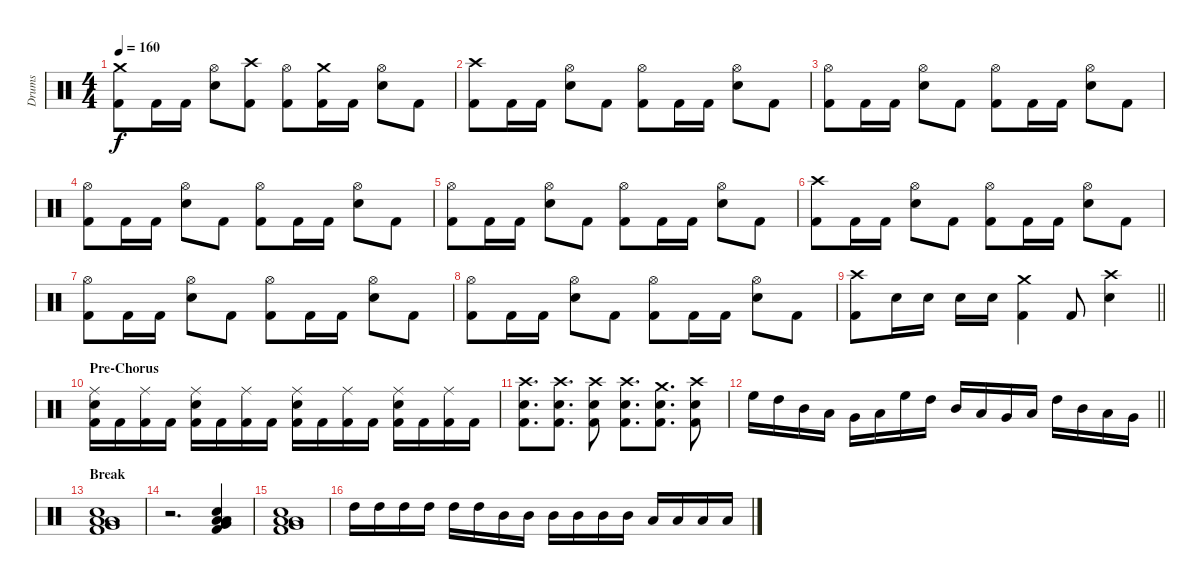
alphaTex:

\track ("Drums" "Drums") {instrument percussion}
\staff {score}
\articulation defaults
\ts (4 4)
\tempo 160
\clef neutral
\ks c
("Crash medium (hit)" "Kick (hit) 2").8{dy f} "Kick (hit) 2".16 "Kick (hit) 2".16 ("Hi-Hat (open)" "Snare (hit) 2").8 ("Crash high (hit)" "Kick (hit) 2").8 ("Hi-Hat (open)" "Kick (hit) 2").8 ("Crash medium (hit)" "Kick (hit) 2").16 "Kick (hit) 2".16 ("Hi-Hat (open)" "Snare (hit) 2").8 "Kick (hit) 2".8 |
("Crash high (hit)" "Kick (hit) 2").8 "Kick (hit) 2".16 "Kick (hit) 2".16 ("Hi-Hat (open)" "Snare (hit) 2").8 "Kick (hit) 2".8 ("Hi-Hat (open)" "Kick (hit) 2").8 "Kick (hit) 2".16 "Kick (hit) 2".16 ("Hi-Hat (open)" "Snare (hit) 2").8 "Kick (hit) 2".8 |
("Hi-Hat (open)" "Kick (hit) 2").8 "Kick (hit) 2".16 "Kick (hit) 2".16 ("Hi-Hat (open)" "Snare (hit) 2").8 "Kick (hit) 2".8 ("Hi-Hat (open)" "Kick (hit) 2").8 "Kick (hit) 2".16 "Kick (hit) 2".16 ("Hi-Hat (open)" "Snare (hit) 2").8 "Kick (hit) 2".8 |
("Hi-Hat (open)" "Kick (hit) 2").8 "Kick (hit) 2".16 "Kick (hit) 2".16 ("Hi-Hat (open)" "Snare (hit) 2").8 "Kick (hit) 2".8 ("Hi-Hat (open)" "Kick (hit) 2").8 "Kick (hit) 2".16 "Kick (hit) 2".16 ("Hi-Hat (open)" "Snare (hit) 2").8 "Kick (hit) 2".8 |
("Hi-Hat (open)" "Kick (hit) 2").8 "Kick (hit) 2".16 "Kick (hit) 2".16 ("Hi-Hat (open)" "Snare (hit) 2").8 "Kick (hit) 2".8 ("Hi-Hat (open)" "Kick (hit) 2").8 "Kick (hit) 2".16 "Kick (hit) 2".16 ("Hi-Hat (open)" "Snare (hit) 2").8 "Kick (hit) 2".8 |
("Crash high (hit)" "Kick (hit) 2").8 "Kick (hit) 2".16 "Kick (hit) 2".16 ("Hi-Hat (open)" "Snare (hit) 2").8 "Kick (hit) 2".8 ("Hi-Hat (open)" "Kick (hit) 2").8 "Kick (hit) 2".16 "Kick (hit) 2".16 ("Hi-Hat (open)" "Snare (hit) 2").8 "Kick (hit) 2".8 |
("Hi-Hat (open)" "Kick (hit) 2").8 "Kick (hit) 2".16 "Kick (hit) 2".16 ("Hi-Hat (open)" "Snare (hit) 2").8 "Kick (hit) 2".8 ("Hi-Hat (open)" "Kick (hit) 2").8 "Kick (hit) 2".16 "Kick (hit) 2".16 ("Hi-Hat (open)" "Snare (hit) 2").8 "Kick (hit) 2".8 |
("Hi-Hat (open)" "Kick (hit) 2").8 "Kick (hit) 2".16 "Kick (hit) 2".16 ("Hi-Hat (open)" "Snare (hit) 2").8 "Kick (hit) 2".8 ("Hi-Hat (open)" "Kick (hit) 2").8 "Kick (hit) 2".16 "Kick (hit) 2".16 ("Hi-Hat (open)" "Snare (hit) 2").8 "Kick (hit) 2".8 |
\barLineRight lightlight
("Crash high (hit)" "Kick (hit) 2").8 "Snare (hit) 2".16 "Snare (hit) 2".16 "Electric Snare (hit)".16 "Electric Snare (hit)".16 ("Crash medium (hit)" "Kick (hit) 2").4 "Kick (hit) 2".8 ("Crash high (hit)" "Snare (hit) 2").4 |
\section ("" "Pre-Chorus")
("Ride (middle)" "Snare (hit) 2" "Kick (hit) 2").16 "Kick (hit) 2".16 ("Ride (middle)" "Kick (hit) 2").16 "Kick (hit) 2".16 ("Ride (middle)" "Snare (hit) 2" "Kick (hit) 2").16 "Kick (hit) 2".16 ("Ride (middle)" "Kick (hit) 2").16 "Kick (hit) 2".16 ("Ride (middle)" "Snare (hit) 2" "Kick (hit) 2").16 "Kick (hit) 2".16 ("Ride (middle)" "Kick (hit) 2").16 "Kick (hit) 2".16 ("Ride (middle)" "Snare (hit) 2" "Kick (hit) 2").16 "Kick (hit) 2".16 ("Ride (middle)" "Kick (hit) 2").16 "Kick (hit) 2".16 |
("Crash high (hit)" "Snare (hit) 2" "Kick (hit) 2").8{d} ("Crash high (hit)" "Snare (hit) 2" "Kick (hit) 2").8{d} ("Crash high (hit)" "Snare (hit) 2" "Kick (hit) 2").8 ("Crash high (hit)" "Snare (hit) 2" "Kick (hit) 2").8{d} ("Crash medium (hit)" "Snare (hit) 2" "Kick (hit) 2").8{d} ("Crash high (hit)" "Snare (hit) 2" "Kick (hit) 2").8 |
\barLineRight lightlight "High Floor Tom (hit)".16 "High Tom (hit)".16 "Mid Tom (hit)".16 "Low Tom (hit)".16 "Very Low Tom (hit)".16 "Low Floor Tom (hit)".16 "High Floor Tom (hit)".16 "High Tom (hit)".16 "Mid Tom (hit)".16 "Low Tom (hit)".16 "Very Low Tom (hit)".16 "Low Floor Tom (hit)".16 "High Tom (hit)".16 "Mid Tom (hit)".16 "Low Tom (hit)".16 "Very Low Tom (hit)".16
|
\section ("" "Break")
("Snare (hit) 2" "Low Floor Tom (hit)" "Very Low Tom (hit)" "Low Tom (hit)" "Kick (hit) 2").1 |
r.2{d} ("Snare (hit) 2" "Low Floor Tom (hit)" "Very Low Tom (hit)" "Low Tom (hit)" "Kick (hit) 2").4 |
("Snare (hit) 2" "Low Floor Tom (hit)" "Very Low Tom (hit)" "Low Tom (hit)" "Kick (hit) 2").1 |
"High Tom (hit)".16 "High Tom (hit)".16 "High Tom (hit)".16 "High Tom (hit)".16 "High Tom (hit)".16 "High Tom (hit)".16 "Mid Tom (hit)".16 "Mid Tom (hit)".16 "Mid Tom (hit)".16 "Mid Tom (hit)".16 "Mid Tom (hit)".16 "Mid Tom (hit)".16 "Low Tom (hit)".16 "Low Tom (hit)".16 "Low Tom (hit)".16 "Low Tom (hit)".16
